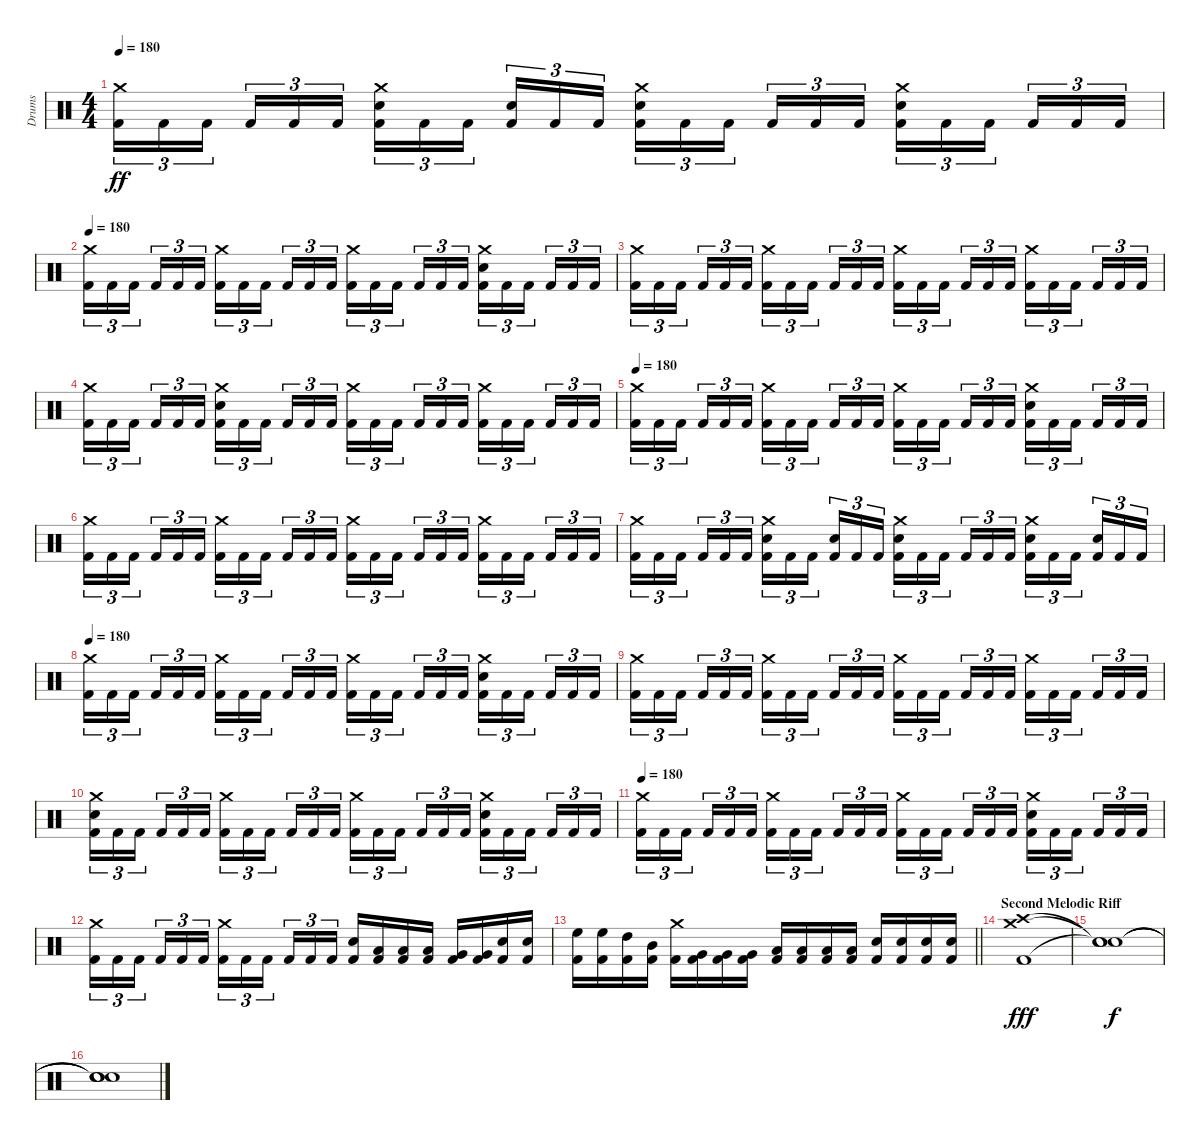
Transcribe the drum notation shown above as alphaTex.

\track ("Drums" "Drums") {instrument percussion}
\staff {score}
\articulation defaults
\ts (4 4)
\tempo 180
\clef neutral
\ks c
("Crash medium (hit)" "Kick (hit) 2").16{tu (3 2) dy ff} "Kick (hit) 2".16{tu (3 2)} "Kick (hit) 2".16{tu (3 2) beam splitsecondary} "Kick (hit) 2".16{tu (3 2)} "Kick (hit) 2".16{tu (3 2)} "Kick (hit) 2".16{tu (3 2)} ("Crash medium (hit)" "Electric Snare (hit)" "Kick (hit) 2").16{tu (3 2)} "Kick (hit) 2".16{tu (3 2)} "Kick (hit) 2".16{tu (3 2) beam splitsecondary} ("Electric Snare (hit)" "Kick (hit) 2").16{tu (3 2)} "Kick (hit) 2".16{tu (3 2)} "Kick (hit) 2".16{tu (3 2)} ("Crash medium (hit)" "Electric Snare (hit)" "Kick (hit) 2").16{tu (3 2)} "Kick (hit) 2".16{tu (3 2)} "Kick (hit) 2".16{tu (3 2) beam splitsecondary} "Kick (hit) 2".16{tu (3 2)} "Kick (hit) 2".16{tu (3 2)} "Kick (hit) 2".16{tu (3 2)} ("Crash medium (hit)" "Electric Snare (hit)" "Kick (hit) 2").16{tu (3 2)} "Kick (hit) 2".16{tu (3 2)} "Kick (hit) 2".16{tu (3 2) beam splitsecondary} "Kick (hit) 2".16{tu (3 2)} "Kick (hit) 2".16{tu (3 2)} "Kick (hit) 2".16{tu (3 2)} |
\tempo 180
("Crash medium (hit)" "Kick (hit) 2").16{tu (3 2)} "Kick (hit) 2".16{tu (3 2)} "Kick (hit) 2".16{tu (3 2) beam splitsecondary} "Kick (hit) 2".16{tu (3 2)} "Kick (hit) 2".16{tu (3 2)} "Kick (hit) 2".16{tu (3 2)} ("Crash medium (hit)" "Kick (hit) 2").16{tu (3 2)} "Kick (hit) 2".16{tu (3 2)} "Kick (hit) 2".16{tu (3 2) beam splitsecondary} "Kick (hit) 2".16{tu (3 2)} "Kick (hit) 2".16{tu (3 2)} "Kick (hit) 2".16{tu (3 2)} ("Crash medium (hit)" "Kick (hit) 2").16{tu (3 2)} "Kick (hit) 2".16{tu (3 2)} "Kick (hit) 2".16{tu (3 2) beam splitsecondary} "Kick (hit) 2".16{tu (3 2)} "Kick (hit) 2".16{tu (3 2)} "Kick (hit) 2".16{tu (3 2)} ("Crash medium (hit)" "Electric Snare (hit)" "Kick (hit) 2").16{tu (3 2)} "Kick (hit) 2".16{tu (3 2)} "Kick (hit) 2".16{tu (3 2) beam splitsecondary} "Kick (hit) 2".16{tu (3 2)} "Kick (hit) 2".16{tu (3 2)} "Kick (hit) 2".16{tu (3 2)} |
("Crash medium (hit)" "Kick (hit) 2").16{tu (3 2)} "Kick (hit) 2".16{tu (3 2)} "Kick (hit) 2".16{tu (3 2) beam splitsecondary} "Kick (hit) 2".16{tu (3 2)} "Kick (hit) 2".16{tu (3 2)} "Kick (hit) 2".16{tu (3 2)} ("Crash medium (hit)" "Kick (hit) 2").16{tu (3 2)} "Kick (hit) 2".16{tu (3 2)} "Kick (hit) 2".16{tu (3 2) beam splitsecondary} "Kick (hit) 2".16{tu (3 2)} "Kick (hit) 2".16{tu (3 2)} "Kick (hit) 2".16{tu (3 2)} ("Crash medium (hit)" "Kick (hit) 2").16{tu (3 2)} "Kick (hit) 2".16{tu (3 2)} "Kick (hit) 2".16{tu (3 2) beam splitsecondary} "Kick (hit) 2".16{tu (3 2)} "Kick (hit) 2".16{tu (3 2)} "Kick (hit) 2".16{tu (3 2)} ("Crash medium (hit)" "Kick (hit) 2").16{tu (3 2)} "Kick (hit) 2".16{tu (3 2)} "Kick (hit) 2".16{tu (3 2) beam splitsecondary} "Kick (hit) 2".16{tu (3 2)} "Kick (hit) 2".16{tu (3 2)} "Kick (hit) 2".16{tu (3 2)} |
("Crash medium (hit)" "Kick (hit) 2").16{tu (3 2)} "Kick (hit) 2".16{tu (3 2)} "Kick (hit) 2".16{tu (3 2) beam splitsecondary} "Kick (hit) 2".16{tu (3 2)} "Kick (hit) 2".16{tu (3 2)} "Kick (hit) 2".16{tu (3 2)} ("Crash medium (hit)" "Electric Snare (hit)" "Kick (hit) 2").16{tu (3 2)} "Kick (hit) 2".16{tu (3 2)} "Kick (hit) 2".16{tu (3 2) beam splitsecondary} "Kick (hit) 2".16{tu (3 2)} "Kick (hit) 2".16{tu (3 2)} "Kick (hit) 2".16{tu (3 2)} ("Crash medium (hit)" "Kick (hit) 2").16{tu (3 2)} "Kick (hit) 2".16{tu (3 2)} "Kick (hit) 2".16{tu (3 2) beam splitsecondary} "Kick (hit) 2".16{tu (3 2)} "Kick (hit) 2".16{tu (3 2)} "Kick (hit) 2".16{tu (3 2)} ("Crash medium (hit)" "Kick (hit) 2").16{tu (3 2)} "Kick (hit) 2".16{tu (3 2)} "Kick (hit) 2".16{tu (3 2) beam splitsecondary} "Kick (hit) 2".16{tu (3 2)} "Kick (hit) 2".16{tu (3 2)} "Kick (hit) 2".16{tu (3 2)} |
\tempo 180
("Crash medium (hit)" "Kick (hit) 2").16{tu (3 2)} "Kick (hit) 2".16{tu (3 2)} "Kick (hit) 2".16{tu (3 2) beam splitsecondary} "Kick (hit) 2".16{tu (3 2)} "Kick (hit) 2".16{tu (3 2)} "Kick (hit) 2".16{tu (3 2)} ("Crash medium (hit)" "Kick (hit) 2").16{tu (3 2)} "Kick (hit) 2".16{tu (3 2)} "Kick (hit) 2".16{tu (3 2) beam splitsecondary} "Kick (hit) 2".16{tu (3 2)} "Kick (hit) 2".16{tu (3 2)} "Kick (hit) 2".16{tu (3 2)} ("Crash medium (hit)" "Kick (hit) 2").16{tu (3 2)} "Kick (hit) 2".16{tu (3 2)} "Kick (hit) 2".16{tu (3 2) beam splitsecondary} "Kick (hit) 2".16{tu (3 2)} "Kick (hit) 2".16{tu (3 2)} "Kick (hit) 2".16{tu (3 2)} ("Crash medium (hit)" "Electric Snare (hit)" "Kick (hit) 2").16{tu (3 2)} "Kick (hit) 2".16{tu (3 2)} "Kick (hit) 2".16{tu (3 2) beam splitsecondary} "Kick (hit) 2".16{tu (3 2)} "Kick (hit) 2".16{tu (3 2)} "Kick (hit) 2".16{tu (3 2)} |
("Crash medium (hit)" "Kick (hit) 2").16{tu (3 2)} "Kick (hit) 2".16{tu (3 2)} "Kick (hit) 2".16{tu (3 2) beam splitsecondary} "Kick (hit) 2".16{tu (3 2)} "Kick (hit) 2".16{tu (3 2)} "Kick (hit) 2".16{tu (3 2)} ("Crash medium (hit)" "Kick (hit) 2").16{tu (3 2)} "Kick (hit) 2".16{tu (3 2)} "Kick (hit) 2".16{tu (3 2) beam splitsecondary} "Kick (hit) 2".16{tu (3 2)} "Kick (hit) 2".16{tu (3 2)} "Kick (hit) 2".16{tu (3 2)} ("Crash medium (hit)" "Kick (hit) 2").16{tu (3 2)} "Kick (hit) 2".16{tu (3 2)} "Kick (hit) 2".16{tu (3 2) beam splitsecondary} "Kick (hit) 2".16{tu (3 2)} "Kick (hit) 2".16{tu (3 2)} "Kick (hit) 2".16{tu (3 2)} ("Crash medium (hit)" "Kick (hit) 2").16{tu (3 2)} "Kick (hit) 2".16{tu (3 2)} "Kick (hit) 2".16{tu (3 2) beam splitsecondary} "Kick (hit) 2".16{tu (3 2)} "Kick (hit) 2".16{tu (3 2)} "Kick (hit) 2".16{tu (3 2)} |
("Crash medium (hit)" "Kick (hit) 2").16{tu (3 2)} "Kick (hit) 2".16{tu (3 2)} "Kick (hit) 2".16{tu (3 2) beam splitsecondary} "Kick (hit) 2".16{tu (3 2)} "Kick (hit) 2".16{tu (3 2)} "Kick (hit) 2".16{tu (3 2)} ("Crash medium (hit)" "Electric Snare (hit)" "Kick (hit) 2").16{tu (3 2)} "Kick (hit) 2".16{tu (3 2)} "Kick (hit) 2".16{tu (3 2) beam splitsecondary} ("Electric Snare (hit)" "Kick (hit) 2").16{tu (3 2)} "Kick (hit) 2".16{tu (3 2)} "Kick (hit) 2".16{tu (3 2)} ("Crash medium (hit)" "Electric Snare (hit)" "Kick (hit) 2").16{tu (3 2)} "Kick (hit) 2".16{tu (3 2)} "Kick (hit) 2".16{tu (3 2) beam splitsecondary} "Kick (hit) 2".16{tu (3 2)} "Kick (hit) 2".16{tu (3 2)} "Kick (hit) 2".16{tu (3 2)} ("Crash medium (hit)" "Electric Snare (hit)" "Kick (hit) 2").16{tu (3 2)} "Kick (hit) 2".16{tu (3 2)} "Kick (hit) 2".16{tu (3 2) beam splitsecondary} ("Electric Snare (hit)" "Kick (hit) 2").16{tu (3 2)} "Kick (hit) 2".16{tu (3 2)} "Kick (hit) 2".16{tu (3 2)} |
\tempo 180
("Crash medium (hit)" "Kick (hit) 2").16{tu (3 2)} "Kick (hit) 2".16{tu (3 2)} "Kick (hit) 2".16{tu (3 2) beam splitsecondary} "Kick (hit) 2".16{tu (3 2)} "Kick (hit) 2".16{tu (3 2)} "Kick (hit) 2".16{tu (3 2)} ("Crash medium (hit)" "Kick (hit) 2").16{tu (3 2)} "Kick (hit) 2".16{tu (3 2)} "Kick (hit) 2".16{tu (3 2) beam splitsecondary} "Kick (hit) 2".16{tu (3 2)} "Kick (hit) 2".16{tu (3 2)} "Kick (hit) 2".16{tu (3 2)} ("Crash medium (hit)" "Kick (hit) 2").16{tu (3 2)} "Kick (hit) 2".16{tu (3 2)} "Kick (hit) 2".16{tu (3 2) beam splitsecondary} "Kick (hit) 2".16{tu (3 2)} "Kick (hit) 2".16{tu (3 2)} "Kick (hit) 2".16{tu (3 2)} ("Crash medium (hit)" "Electric Snare (hit)" "Kick (hit) 2").16{tu (3 2)} "Kick (hit) 2".16{tu (3 2)} "Kick (hit) 2".16{tu (3 2) beam splitsecondary} "Kick (hit) 2".16{tu (3 2)} "Kick (hit) 2".16{tu (3 2)} "Kick (hit) 2".16{tu (3 2)} |
("Crash medium (hit)" "Kick (hit) 2").16{tu (3 2)} "Kick (hit) 2".16{tu (3 2)} "Kick (hit) 2".16{tu (3 2) beam splitsecondary} "Kick (hit) 2".16{tu (3 2)} "Kick (hit) 2".16{tu (3 2)} "Kick (hit) 2".16{tu (3 2)} ("Crash medium (hit)" "Kick (hit) 2").16{tu (3 2)} "Kick (hit) 2".16{tu (3 2)} "Kick (hit) 2".16{tu (3 2) beam splitsecondary} "Kick (hit) 2".16{tu (3 2)} "Kick (hit) 2".16{tu (3 2)} "Kick (hit) 2".16{tu (3 2)} ("Crash medium (hit)" "Kick (hit) 2").16{tu (3 2)} "Kick (hit) 2".16{tu (3 2)} "Kick (hit) 2".16{tu (3 2) beam splitsecondary} "Kick (hit) 2".16{tu (3 2)} "Kick (hit) 2".16{tu (3 2)} "Kick (hit) 2".16{tu (3 2)} ("Crash medium (hit)" "Kick (hit) 2").16{tu (3 2)} "Kick (hit) 2".16{tu (3 2)} "Kick (hit) 2".16{tu (3 2) beam splitsecondary} "Kick (hit) 2".16{tu (3 2)} "Kick (hit) 2".16{tu (3 2)} "Kick (hit) 2".16{tu (3 2)} |
("Crash medium (hit)" "Electric Snare (hit)" "Kick (hit) 2").16{tu (3 2)} "Kick (hit) 2".16{tu (3 2)} "Kick (hit) 2".16{tu (3 2) beam splitsecondary} "Kick (hit) 2".16{tu (3 2)} "Kick (hit) 2".16{tu (3 2)} "Kick (hit) 2".16{tu (3 2)} ("Crash medium (hit)" "Kick (hit) 2").16{tu (3 2)} "Kick (hit) 2".16{tu (3 2)} "Kick (hit) 2".16{tu (3 2) beam splitsecondary} "Kick (hit) 2".16{tu (3 2)} "Kick (hit) 2".16{tu (3 2)} "Kick (hit) 2".16{tu (3 2)} ("Crash medium (hit)" "Kick (hit) 2").16{tu (3 2)} "Kick (hit) 2".16{tu (3 2)} "Kick (hit) 2".16{tu (3 2) beam splitsecondary} "Kick (hit) 2".16{tu (3 2)} "Kick (hit) 2".16{tu (3 2)} "Kick (hit) 2".16{tu (3 2)} ("Crash medium (hit)" "Electric Snare (hit)" "Kick (hit) 2").16{tu (3 2)} "Kick (hit) 2".16{tu (3 2)} "Kick (hit) 2".16{tu (3 2) beam splitsecondary} "Kick (hit) 2".16{tu (3 2)} "Kick (hit) 2".16{tu (3 2)} "Kick (hit) 2".16{tu (3 2)} |
\tempo 180
("Crash medium (hit)" "Kick (hit) 2").16{tu (3 2)} "Kick (hit) 2".16{tu (3 2)} "Kick (hit) 2".16{tu (3 2) beam splitsecondary} "Kick (hit) 2".16{tu (3 2)} "Kick (hit) 2".16{tu (3 2)} "Kick (hit) 2".16{tu (3 2)} ("Crash medium (hit)" "Kick (hit) 2").16{tu (3 2)} "Kick (hit) 2".16{tu (3 2)} "Kick (hit) 2".16{tu (3 2) beam splitsecondary} "Kick (hit) 2".16{tu (3 2)} "Kick (hit) 2".16{tu (3 2)} "Kick (hit) 2".16{tu (3 2)} ("Crash medium (hit)" "Kick (hit) 2").16{tu (3 2)} "Kick (hit) 2".16{tu (3 2)} "Kick (hit) 2".16{tu (3 2) beam splitsecondary} "Kick (hit) 2".16{tu (3 2)} "Kick (hit) 2".16{tu (3 2)} "Kick (hit) 2".16{tu (3 2)} ("Crash medium (hit)" "Electric Snare (hit)" "Kick (hit) 2").16{tu (3 2)} "Kick (hit) 2".16{tu (3 2)} "Kick (hit) 2".16{tu (3 2) beam splitsecondary} "Kick (hit) 2".16{tu (3 2)} "Kick (hit) 2".16{tu (3 2)} "Kick (hit) 2".16{tu (3 2)} |
("Crash medium (hit)" "Kick (hit) 2").16{tu (3 2)} "Kick (hit) 2".16{tu (3 2)} "Kick (hit) 2".16{tu (3 2) beam splitsecondary} "Kick (hit) 2".16{tu (3 2)} "Kick (hit) 2".16{tu (3 2)} "Kick (hit) 2".16{tu (3 2)} ("Crash medium (hit)" "Kick (hit) 2").16{tu (3 2)} "Kick (hit) 2".16{tu (3 2)} "Kick (hit) 2".16{tu (3 2) beam splitsecondary} "Kick (hit) 2".16{tu (3 2)} "Kick (hit) 2".16{tu (3 2)} "Kick (hit) 2".16{tu (3 2)} ("Electric Snare (hit)" "Kick (hit) 2").16 ("Low Floor Tom (hit)" "Kick (hit) 2").16 ("Low Floor Tom (hit)" "Kick (hit) 2").16 ("Low Floor Tom (hit)" "Kick (hit) 2").16 ("Very Low Tom (hit)" "Kick (hit) 2").16 ("Very Low Tom (hit)" "Kick (hit) 2").16 ("Electric Snare (hit)" "Kick (hit) 2").16 ("Electric Snare (hit)" "Kick (hit) 2").16 |
\barLineRight lightlight
("High Floor Tom (hit)" "Kick (hit) 2").16 ("High Floor Tom (hit)" "Kick (hit) 2").16 ("High Tom (hit)" "Kick (hit) 2").16 ("Mid Tom (hit)" "Kick (hit) 2").16 ("Crash medium (hit)" "Kick (hit) 2").16 ("Very Low Tom (hit)" "Kick (hit) 2").16 ("Very Low Tom (hit)" "Kick (hit) 2").16 ("Very Low Tom (hit)" "Kick (hit) 2").16 ("Low Tom (hit)" "Kick (hit) 2").16 ("Low Tom (hit)" "Kick (hit) 2").16 ("Low Tom (hit)" "Kick (hit) 2").16 ("Low Floor Tom (hit)" "Kick (hit) 2").16 ("Electric Snare (hit)" "Kick (hit) 2").16 ("Electric Snare (hit)" "Kick (hit) 2").16 ("Electric Snare (hit)" "Kick (hit) 2").16 ("Electric Snare (hit)" "Kick (hit) 2").16 |
\section ("" "Second Melodic Riff")
("Crash medium (hit)" "Crash high (hit)" "Kick (hit) 2").1{dy fff} |
("Snare (hit)"{t} "Snare (hit)"{t} "Snare (hit)"{t}).1{dy f} |
("Snare (hit)"{t} "Snare (hit)"{t} "Snare (hit)"{t} "Snare (hit)").1
